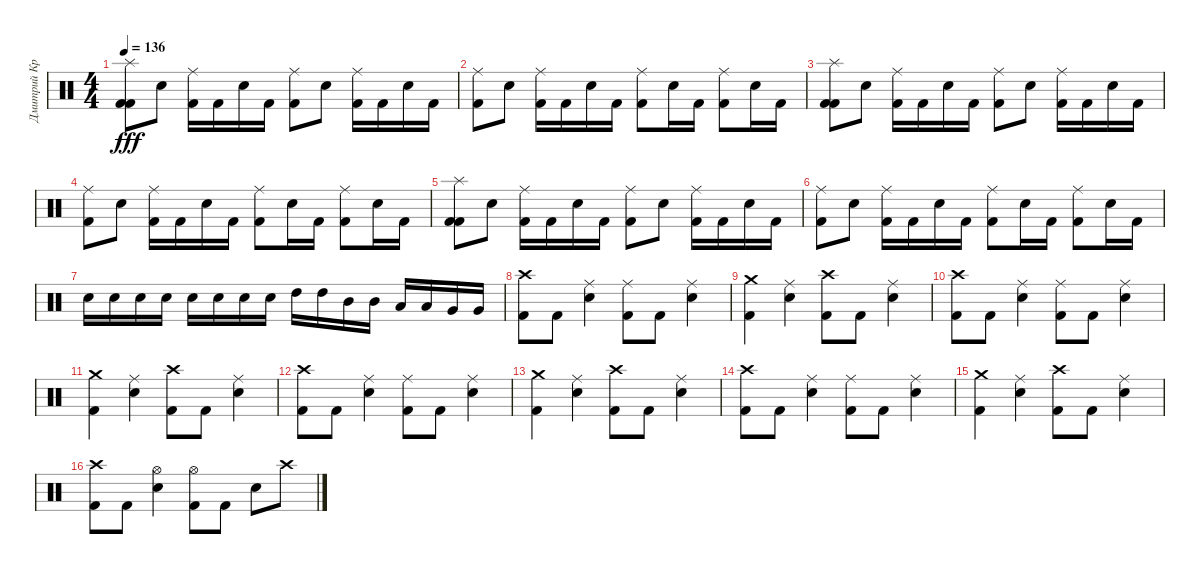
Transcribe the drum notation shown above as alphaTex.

\track ("Дмитрий Кривенков" "Дмитрий Кр") {instrument percussion}
\staff {score}
\articulation defaults
\ts (4 4)
\tempo 136
\clef neutral
\ks c
("Splash (hit)" "Kick (hit) 2" "Kick (hit) 2").8{dy fff} "Electric Snare (hit)".8 ("Kick (hit) 2" "Ride (middle)").16 "Kick (hit) 2".16 "Electric Snare (hit)".16 "Kick (hit) 2".16 ("Kick (hit) 2" "Ride (middle)").8 "Electric Snare (hit)".8 ("Ride (middle)" "Kick (hit) 2").16 "Kick (hit) 2".16 "Electric Snare (hit)".16 "Kick (hit) 2".16 |
("Ride (middle)" "Kick (hit) 2").8 "Electric Snare (hit)".8 ("Ride (middle)" "Kick (hit) 2").16 "Kick (hit) 2".16 "Electric Snare (hit)".16 "Kick (hit) 2".16 ("Kick (hit) 2" "Ride (middle)").8 "Electric Snare (hit)".16 "Kick (hit) 2".16 ("Ride (middle)" "Kick (hit) 2").8 "Electric Snare (hit)".16 "Kick (hit) 2".16 |
("Kick (hit) 2" "Kick (hit) 2" "Splash (hit)").8 "Electric Snare (hit)".8 ("Ride (middle)" "Kick (hit) 2").16 "Kick (hit) 2".16 "Electric Snare (hit)".16 "Kick (hit) 2".16 ("Ride (middle)" "Kick (hit) 2").8 "Electric Snare (hit)".8 ("Ride (middle)" "Kick (hit) 2").16 "Kick (hit) 2".16 "Electric Snare (hit)".16 "Kick (hit) 2".16 |
("Ride (middle)" "Kick (hit) 2").8 "Electric Snare (hit)".8 ("Ride (middle)" "Kick (hit) 2").16 "Kick (hit) 2".16 "Electric Snare (hit)".16 "Kick (hit) 2".16 ("Ride (middle)" "Kick (hit) 2").8 "Electric Snare (hit)".16 "Kick (hit) 2".16 ("Ride (middle)" "Kick (hit) 2").8 "Electric Snare (hit)".16 "Kick (hit) 2".16 |
("Kick (hit) 2" "Kick (hit) 2" "Splash (hit)").8 "Electric Snare (hit)".8 ("Ride (middle)" "Kick (hit) 2").16 "Kick (hit) 2".16 "Electric Snare (hit)".16 "Kick (hit) 2".16 ("Ride (middle)" "Kick (hit) 2").8 "Electric Snare (hit)".8 ("Ride (middle)" "Kick (hit) 2").16 "Kick (hit) 2".16 "Electric Snare (hit)".16 "Kick (hit) 2".16 |
("Ride (middle)" "Kick (hit) 2").8 "Electric Snare (hit)".8 ("Ride (middle)" "Kick (hit) 2").16 "Kick (hit) 2".16 "Electric Snare (hit)".16 "Kick (hit) 2".16 ("Ride (middle)" "Kick (hit) 2").8 "Electric Snare (hit)".16 "Kick (hit) 2".16 ("Ride (middle)" "Kick (hit) 2").8 "Electric Snare (hit)".16 "Kick (hit) 2".16 |
"Electric Snare (hit)".16 "Electric Snare (hit)".16 "Electric Snare (hit)".16 "Electric Snare (hit)".16 "Electric Snare (hit)".16 "Electric Snare (hit)".16 "Electric Snare (hit)".16 "Electric Snare (hit)".16 "High Tom (hit)".16 "High Tom (hit)".16 "Mid Tom (hit)".16 "Mid Tom (hit)".16 "Low Tom (hit)".16 "Low Tom (hit)".16 "Very Low Tom (hit)".16 "Very Low Tom (hit)".16 |
("Crash high (hit)" "Kick (hit) 2").8 "Kick (hit) 2".8 ("Ride (middle)" "Electric Snare (hit)").4 ("Ride (middle)" "Kick (hit) 2").8 "Kick (hit) 2".8 ("Ride (middle)" "Electric Snare (hit)").4 |
("Crash medium (hit)" "Kick (hit) 2").4 ("Ride (middle)" "Electric Snare (hit)").4 ("Crash high (hit)" "Kick (hit) 2").8 "Kick (hit) 2".8 ("Ride (middle)" "Electric Snare (hit)").4 |
("Crash high (hit)" "Kick (hit) 2").8 "Kick (hit) 2".8 ("Ride (middle)" "Electric Snare (hit)").4 ("Ride (middle)" "Kick (hit) 2").8 "Kick (hit) 2".8 ("Ride (middle)" "Electric Snare (hit)").4 |
("Kick (hit) 2" "Crash medium (hit)").4 ("Electric Snare (hit)" "Ride (middle)").4 ("Kick (hit) 2" "Crash high (hit)").8 "Kick (hit) 2".8 ("Electric Snare (hit)" "Ride (middle)").4 |
("Crash high (hit)" "Kick (hit) 2").8 "Kick (hit) 2".8 ("Ride (middle)" "Electric Snare (hit)").4 ("Ride (middle)" "Kick (hit) 2").8 "Kick (hit) 2".8 ("Ride (middle)" "Electric Snare (hit)").4 |
("Crash medium (hit)" "Kick (hit) 2").4 ("Ride (middle)" "Electric Snare (hit)").4 ("Crash high (hit)" "Kick (hit) 2").8 "Kick (hit) 2".8 ("Ride (middle)" "Electric Snare (hit)").4 |
("Crash high (hit)" "Kick (hit) 2").8 "Kick (hit) 2".8 ("Ride (middle)" "Electric Snare (hit)").4 ("Ride (middle)" "Kick (hit) 2").8 "Kick (hit) 2".8 ("Ride (middle)" "Electric Snare (hit)").4 |
("Kick (hit) 2" "Crash medium (hit)").4 ("Electric Snare (hit)" "Ride (middle)").4 ("Kick (hit) 2" "Crash high (hit)").8 "Kick (hit) 2".8 ("Electric Snare (hit)" "Ride (middle)").4 |
("Crash high (hit)" "Kick (hit) 2").8 "Kick (hit) 2".8 ("Hi-Hat (open)" "Electric Snare (hit)").4 ("Hi-Hat (open)" "Kick (hit) 2").8 "Kick (hit) 2".8 "Electric Snare (hit)".8 "Crash high (hit)".8
